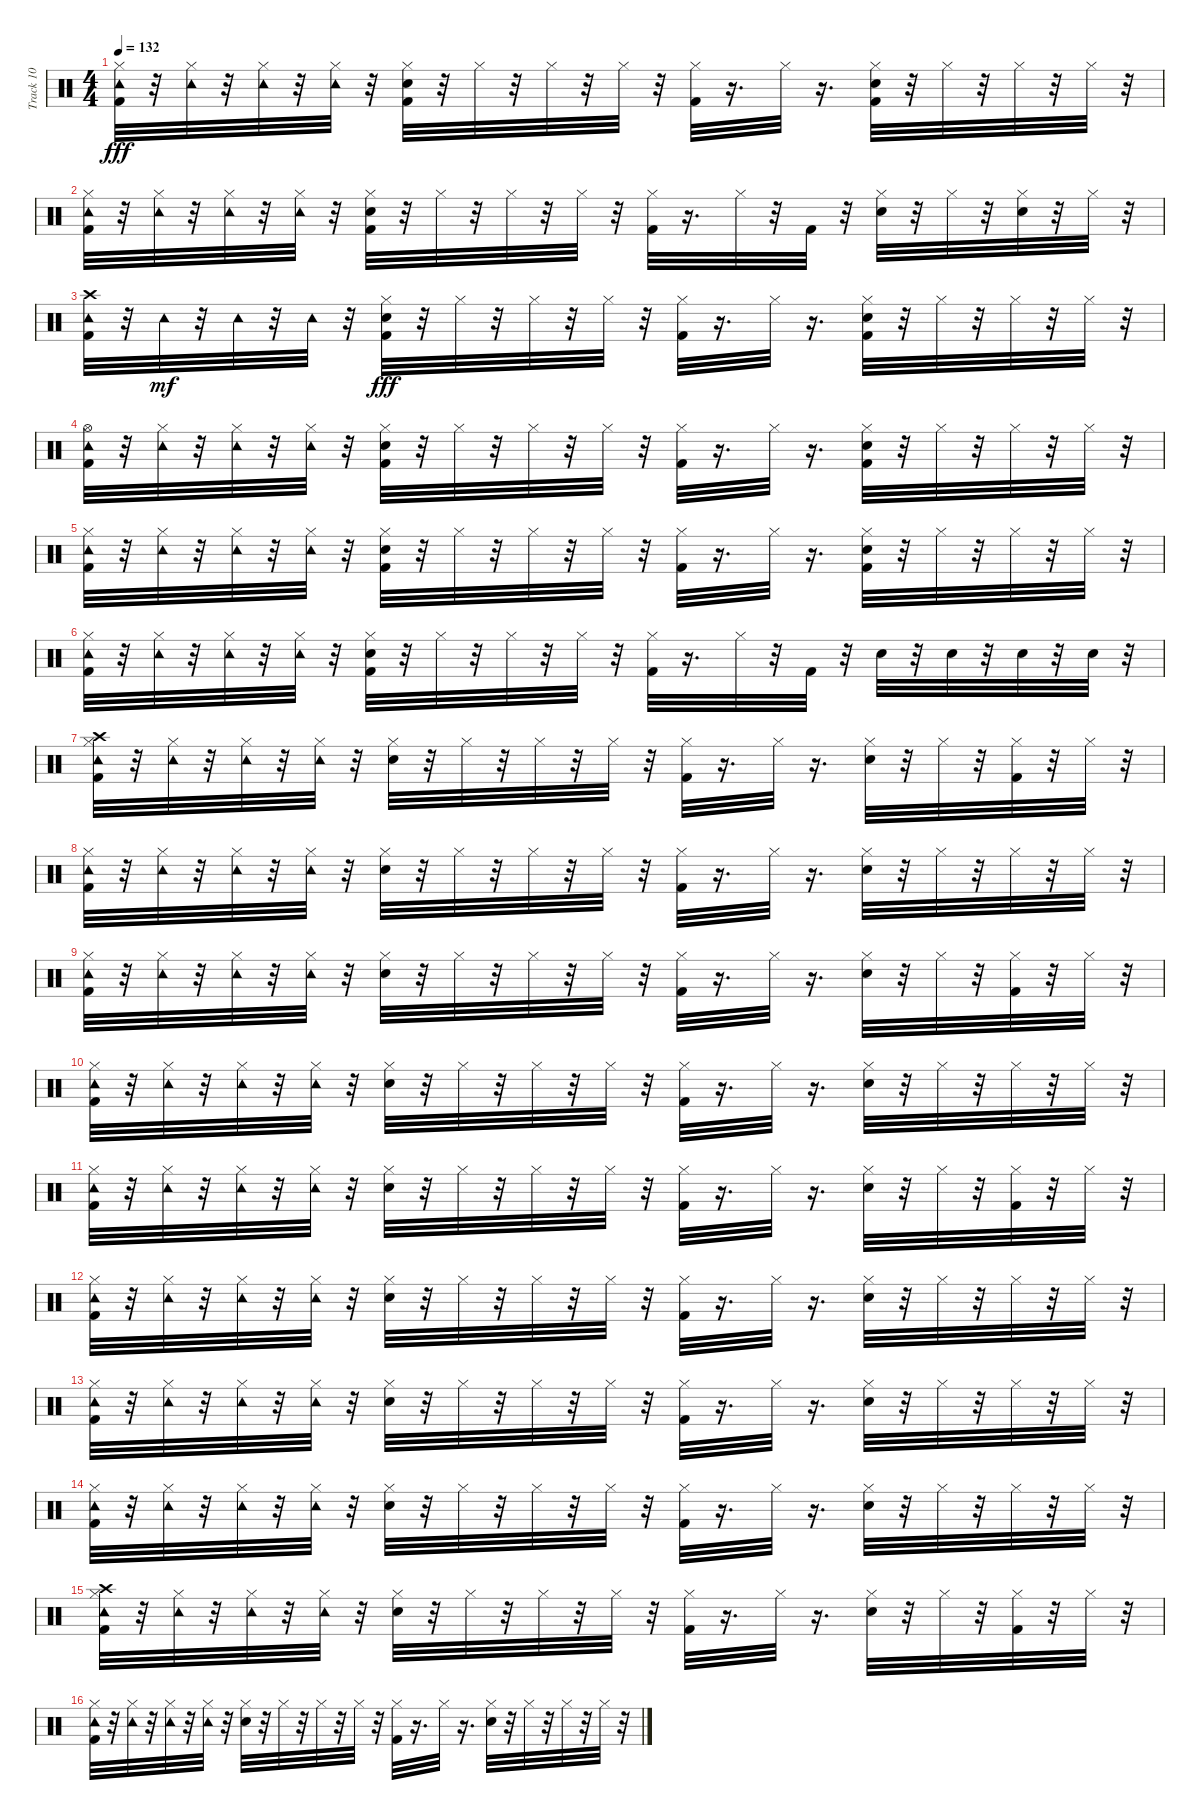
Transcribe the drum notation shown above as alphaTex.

\track ("Track 10" "Track 10") {instrument percussion}
\staff {score}
\articulation defaults
\ts (4 4)
\tempo 132
\clef neutral
\ks c
("Tambourine (hit)" "Kick (hit) 2" "Hi-Hat (closed)").32{dy fff} r.32 ("Tambourine (hit)" "Hi-Hat (closed)").32 r.32 ("Tambourine (hit)" "Hi-Hat (closed)").32 r.32 ("Tambourine (hit)" "Hi-Hat (closed)").32 r.32 ("Snare (hit) 2" "Kick (hit) 2" "Hi-Hat (closed)").32 r.32 "Hi-Hat (closed)".32 r.32 "Hi-Hat (closed)".32 r.32 "Hi-Hat (closed)".32 r.32 ("Kick (hit) 2" "Hi-Hat (closed)").32 r.16{d} "Hi-Hat (closed)".32 r.16{d} ("Snare (hit) 2" "Kick (hit) 2" "Hi-Hat (closed)").32 r.32 "Hi-Hat (closed)".32 r.32 "Hi-Hat (closed)".32 r.32 "Hi-Hat (closed)".32 r.32 |
("Tambourine (hit)" "Kick (hit) 2" "Hi-Hat (closed)").32 r.32 ("Tambourine (hit)" "Hi-Hat (closed)").32 r.32 ("Tambourine (hit)" "Hi-Hat (closed)").32 r.32 ("Tambourine (hit)" "Hi-Hat (closed)").32 r.32 ("Snare (hit) 2" "Kick (hit) 2" "Hi-Hat (closed)").32 r.32 "Hi-Hat (closed)".32 r.32 "Hi-Hat (closed)".32 r.32 "Hi-Hat (closed)".32 r.32 ("Kick (hit) 2" "Hi-Hat (closed)").32 r.16{d} "Hi-Hat (closed)".32 r.32 "Kick (hit) 2".32 r.32 ("Snare (hit) 2" "Hi-Hat (closed)").32 r.32 "Hi-Hat (closed)".32 r.32 ("Snare (hit) 2" "Hi-Hat (closed)").32 r.32 "Hi-Hat (closed)".32 r.32 |
("Tambourine (hit)" "Crash high (hit)" "Kick (hit) 2").32 r.32 "Tambourine (hit)".32{dy mf} r.32 "Tambourine (hit)".32 r.32 "Tambourine (hit)".32 r.32 ("Snare (hit) 2" "Kick (hit) 2" "Hi-Hat (closed)").32{dy fff} r.32 "Hi-Hat (closed)".32 r.32 "Hi-Hat (closed)".32 r.32 "Hi-Hat (closed)".32 r.32 ("Kick (hit) 2" "Hi-Hat (closed)").32 r.16{d} "Hi-Hat (closed)".32 r.16{d} ("Kick (hit) 2" "Snare (hit) 2" "Hi-Hat (closed)").32 r.32 "Hi-Hat (closed)".32 r.32 "Hi-Hat (closed)".32 r.32 "Hi-Hat (closed)".32 r.32 |
("Tambourine (hit)" "Hi-Hat (open)" "Kick (hit) 2").32 r.32 ("Tambourine (hit)" "Hi-Hat (closed)").32 r.32 ("Tambourine (hit)" "Hi-Hat (closed)").32 r.32 ("Tambourine (hit)" "Hi-Hat (closed)").32 r.32 ("Snare (hit) 2" "Kick (hit) 2" "Hi-Hat (closed)").32 r.32 "Hi-Hat (closed)".32 r.32 "Hi-Hat (closed)".32 r.32 "Hi-Hat (closed)".32 r.32 ("Kick (hit) 2" "Hi-Hat (closed)").32 r.16{d} "Hi-Hat (closed)".32 r.16{d} ("Kick (hit) 2" "Snare (hit) 2" "Hi-Hat (closed)").32 r.32 "Hi-Hat (closed)".32 r.32 "Hi-Hat (closed)".32 r.32 "Hi-Hat (closed)".32 r.32 |
("Tambourine (hit)" "Kick (hit) 2" "Hi-Hat (closed)").32 r.32 ("Tambourine (hit)" "Hi-Hat (closed)").32 r.32 ("Tambourine (hit)" "Hi-Hat (closed)").32 r.32 ("Tambourine (hit)" "Hi-Hat (closed)").32 r.32 ("Snare (hit) 2" "Kick (hit) 2" "Hi-Hat (closed)").32 r.32 "Hi-Hat (closed)".32 r.32 "Hi-Hat (closed)".32 r.32 "Hi-Hat (closed)".32 r.32 ("Kick (hit) 2" "Hi-Hat (closed)").32 r.16{d} "Hi-Hat (closed)".32 r.16{d} ("Snare (hit) 2" "Kick (hit) 2" "Hi-Hat (closed)").32 r.32 "Hi-Hat (closed)".32 r.32 "Hi-Hat (closed)".32 r.32 "Hi-Hat (closed)".32 r.32 |
("Tambourine (hit)" "Kick (hit) 2" "Hi-Hat (closed)").32 r.32 ("Tambourine (hit)" "Hi-Hat (closed)").32 r.32 ("Tambourine (hit)" "Hi-Hat (closed)").32 r.32 ("Tambourine (hit)" "Hi-Hat (closed)").32 r.32 ("Snare (hit) 2" "Kick (hit) 2" "Hi-Hat (closed)").32 r.32 "Hi-Hat (closed)".32 r.32 "Hi-Hat (closed)".32 r.32 "Hi-Hat (closed)".32 r.32 ("Kick (hit) 2" "Hi-Hat (closed)").32 r.16{d} "Hi-Hat (closed)".32 r.32 "Kick (hit) 2".32 r.32 "Snare (hit) 2".32 r.32 "Snare (hit) 2".32 r.32 "Snare (hit) 2".32 r.32 "Snare (hit) 2".32 r.32 |
("Tambourine (hit)" "Crash high (hit)" "Kick (hit) 2" "Hi-Hat (closed)").32 r.32 ("Tambourine (hit)" "Hi-Hat (closed)").32 r.32 ("Tambourine (hit)" "Hi-Hat (closed)").32 r.32 ("Tambourine (hit)" "Hi-Hat (closed)").32 r.32 ("Snare (hit) 2" "Hi-Hat (closed)").32 r.32 "Hi-Hat (closed)".32 r.32 "Hi-Hat (closed)".32 r.32 "Hi-Hat (closed)".32 r.32 ("Kick (hit) 2" "Hi-Hat (closed)").32 r.16{d} "Hi-Hat (closed)".32 r.16{d} ("Snare (hit) 2" "Hi-Hat (closed)").32 r.32 "Hi-Hat (closed)".32 r.32 ("Kick (hit) 2" "Hi-Hat (closed)").32 r.32 "Hi-Hat (closed)".32 r.32 |
("Tambourine (hit)" "Kick (hit) 2" "Hi-Hat (closed)").32 r.32 ("Tambourine (hit)" "Hi-Hat (closed)").32 r.32 ("Tambourine (hit)" "Hi-Hat (closed)").32 r.32 ("Tambourine (hit)" "Hi-Hat (closed)").32 r.32 ("Snare (hit) 2" "Hi-Hat (closed)").32 r.32 "Hi-Hat (closed)".32 r.32 "Hi-Hat (closed)".32 r.32 "Hi-Hat (closed)".32 r.32 ("Kick (hit) 2" "Hi-Hat (closed)").32 r.16{d} "Hi-Hat (closed)".32 r.16{d} ("Snare (hit) 2" "Hi-Hat (closed)").32 r.32 "Hi-Hat (closed)".32 r.32 "Hi-Hat (closed)".32 r.32 "Hi-Hat (closed)".32 r.32 |
("Tambourine (hit)" "Kick (hit) 2" "Hi-Hat (closed)").32 r.32 ("Tambourine (hit)" "Hi-Hat (closed)").32 r.32 ("Tambourine (hit)" "Hi-Hat (closed)").32 r.32 ("Tambourine (hit)" "Hi-Hat (closed)").32 r.32 ("Snare (hit) 2" "Hi-Hat (closed)").32 r.32 "Hi-Hat (closed)".32 r.32 "Hi-Hat (closed)".32 r.32 "Hi-Hat (closed)".32 r.32 ("Kick (hit) 2" "Hi-Hat (closed)").32 r.16{d} "Hi-Hat (closed)".32 r.16{d} ("Snare (hit) 2" "Hi-Hat (closed)").32 r.32 "Hi-Hat (closed)".32 r.32 ("Kick (hit) 2" "Hi-Hat (closed)").32 r.32 "Hi-Hat (closed)".32 r.32 |
("Tambourine (hit)" "Kick (hit) 2" "Hi-Hat (closed)").32 r.32 ("Tambourine (hit)" "Hi-Hat (closed)").32 r.32 ("Tambourine (hit)" "Hi-Hat (closed)").32 r.32 ("Tambourine (hit)" "Hi-Hat (closed)").32 r.32 ("Snare (hit) 2" "Hi-Hat (closed)").32 r.32 "Hi-Hat (closed)".32 r.32 "Hi-Hat (closed)".32 r.32 "Hi-Hat (closed)".32 r.32 ("Kick (hit) 2" "Hi-Hat (closed)").32 r.16{d} "Hi-Hat (closed)".32 r.16{d} ("Snare (hit) 2" "Hi-Hat (closed)").32 r.32 "Hi-Hat (closed)".32 r.32 "Hi-Hat (closed)".32 r.32 "Hi-Hat (closed)".32 r.32 |
("Tambourine (hit)" "Kick (hit) 2" "Hi-Hat (closed)").32 r.32 ("Tambourine (hit)" "Hi-Hat (closed)").32 r.32 ("Tambourine (hit)" "Hi-Hat (closed)").32 r.32 ("Tambourine (hit)" "Hi-Hat (closed)").32 r.32 ("Snare (hit) 2" "Hi-Hat (closed)").32 r.32 "Hi-Hat (closed)".32 r.32 "Hi-Hat (closed)".32 r.32 "Hi-Hat (closed)".32 r.32 ("Kick (hit) 2" "Hi-Hat (closed)").32 r.16{d} "Hi-Hat (closed)".32 r.16{d} ("Snare (hit) 2" "Hi-Hat (closed)").32 r.32 "Hi-Hat (closed)".32 r.32 ("Kick (hit) 2" "Hi-Hat (closed)").32 r.32 "Hi-Hat (closed)".32 r.32 |
("Tambourine (hit)" "Kick (hit) 2" "Hi-Hat (closed)").32 r.32 ("Tambourine (hit)" "Hi-Hat (closed)").32 r.32 ("Tambourine (hit)" "Hi-Hat (closed)").32 r.32 ("Tambourine (hit)" "Hi-Hat (closed)").32 r.32 ("Snare (hit) 2" "Hi-Hat (closed)").32 r.32 "Hi-Hat (closed)".32 r.32 "Hi-Hat (closed)".32 r.32 "Hi-Hat (closed)".32 r.32 ("Kick (hit) 2" "Hi-Hat (closed)").32 r.16{d} "Hi-Hat (closed)".32 r.16{d} ("Snare (hit) 2" "Hi-Hat (closed)").32 r.32 "Hi-Hat (closed)".32 r.32 "Hi-Hat (closed)".32 r.32 "Hi-Hat (closed)".32 r.32 |
("Tambourine (hit)" "Kick (hit) 2" "Hi-Hat (closed)").32 r.32 ("Tambourine (hit)" "Hi-Hat (closed)").32 r.32 ("Tambourine (hit)" "Hi-Hat (closed)").32 r.32 ("Tambourine (hit)" "Hi-Hat (closed)").32 r.32 ("Snare (hit) 2" "Hi-Hat (closed)").32 r.32 "Hi-Hat (closed)".32 r.32 "Hi-Hat (closed)".32 r.32 "Hi-Hat (closed)".32 r.32 ("Kick (hit) 2" "Hi-Hat (closed)").32 r.16{d} "Hi-Hat (closed)".32 r.16{d} ("Snare (hit) 2" "Hi-Hat (closed)").32 r.32 "Hi-Hat (closed)".32 r.32 "Hi-Hat (closed)".32 r.32 "Hi-Hat (closed)".32 r.32 |
("Tambourine (hit)" "Kick (hit) 2" "Hi-Hat (closed)").32 r.32 ("Tambourine (hit)" "Hi-Hat (closed)").32 r.32 ("Tambourine (hit)" "Hi-Hat (closed)").32 r.32 ("Tambourine (hit)" "Hi-Hat (closed)").32 r.32 ("Snare (hit) 2" "Hi-Hat (closed)").32 r.32 "Hi-Hat (closed)".32 r.32 "Hi-Hat (closed)".32 r.32 "Hi-Hat (closed)".32 r.32 ("Kick (hit) 2" "Hi-Hat (closed)").32 r.16{d} "Hi-Hat (closed)".32 r.16{d} ("Snare (hit) 2" "Hi-Hat (closed)").32 r.32 "Hi-Hat (closed)".32 r.32 "Hi-Hat (closed)".32 r.32 "Hi-Hat (closed)".32 r.32 |
("Tambourine (hit)" "Crash high (hit)" "Kick (hit) 2" "Hi-Hat (closed)").32 r.32 ("Tambourine (hit)" "Hi-Hat (closed)").32 r.32 ("Tambourine (hit)" "Hi-Hat (closed)").32 r.32 ("Tambourine (hit)" "Hi-Hat (closed)").32 r.32 ("Snare (hit) 2" "Hi-Hat (closed)").32 r.32 "Hi-Hat (closed)".32 r.32 "Hi-Hat (closed)".32 r.32 "Hi-Hat (closed)".32 r.32 ("Kick (hit) 2" "Hi-Hat (closed)").32 r.16{d} "Hi-Hat (closed)".32 r.16{d} ("Snare (hit) 2" "Hi-Hat (closed)").32 r.32 "Hi-Hat (closed)".32 r.32 ("Kick (hit) 2" "Hi-Hat (closed)").32 r.32 "Hi-Hat (closed)".32 r.32 |
("Tambourine (hit)" "Kick (hit) 2" "Hi-Hat (closed)").32 r.32 ("Tambourine (hit)" "Hi-Hat (closed)").32 r.32 ("Tambourine (hit)" "Hi-Hat (closed)").32 r.32 ("Tambourine (hit)" "Hi-Hat (closed)").32 r.32 ("Snare (hit) 2" "Hi-Hat (closed)").32 r.32 "Hi-Hat (closed)".32 r.32 "Hi-Hat (closed)".32 r.32 "Hi-Hat (closed)".32 r.32 ("Kick (hit) 2" "Hi-Hat (closed)").32 r.16{d} "Hi-Hat (closed)".32 r.16{d} ("Snare (hit) 2" "Hi-Hat (closed)").32 r.32 "Hi-Hat (closed)".32 r.32 "Hi-Hat (closed)".32 r.32 "Hi-Hat (closed)".32 r.32
